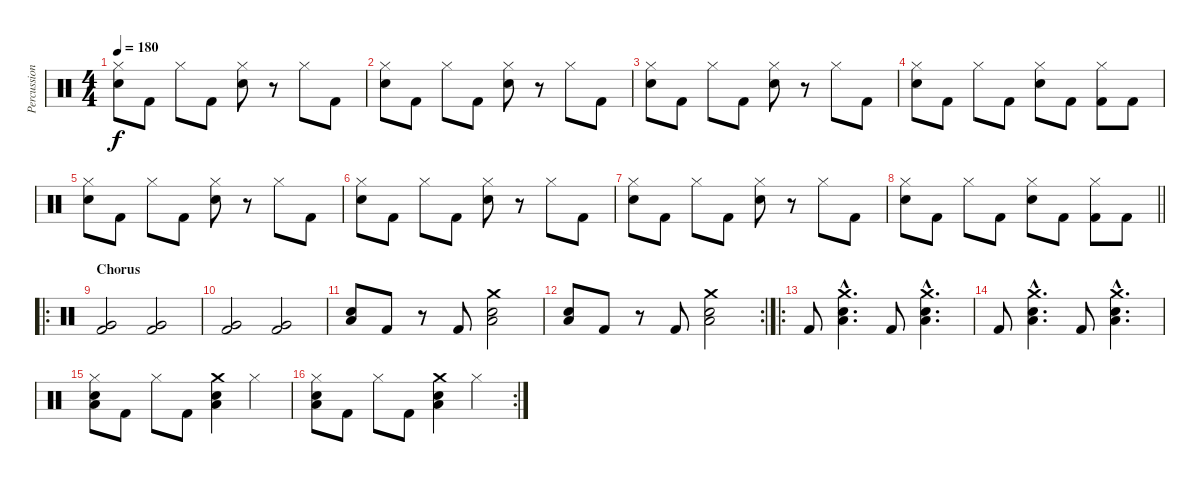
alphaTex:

\track ("Percussion" "Percussion") {instrument percussion}
\staff {score}
\articulation defaults
\ts (4 4)
\tempo 180
\clef neutral
\ks c
("Hi-Hat (closed)" "Electric Snare (hit)").8{dy f} "Kick (hit) 2".8 "Hi-Hat (closed)".8 "Kick (hit) 2".8 ("Hi-Hat (closed)" "Electric Snare (hit)").8 r.8 "Hi-Hat (closed)".8 "Kick (hit) 2".8 |
("Hi-Hat (closed)" "Electric Snare (hit)").8 "Kick (hit) 2".8 "Hi-Hat (closed)".8 "Kick (hit) 2".8 ("Hi-Hat (closed)" "Electric Snare (hit)").8 r.8 "Hi-Hat (closed)".8 "Kick (hit) 2".8 |
("Hi-Hat (closed)" "Electric Snare (hit)").8 "Kick (hit) 2".8 "Hi-Hat (closed)".8 "Kick (hit) 2".8 ("Hi-Hat (closed)" "Electric Snare (hit)").8 r.8 "Hi-Hat (closed)".8 "Kick (hit) 2".8 |
("Hi-Hat (closed)" "Electric Snare (hit)").8 "Kick (hit) 2".8 "Hi-Hat (closed)".8 "Kick (hit) 2".8 ("Hi-Hat (closed)" "Electric Snare (hit)").8 "Kick (hit) 2".8 ("Hi-Hat (closed)" "Kick (hit) 2").8 "Kick (hit) 2".8 |
("Hi-Hat (closed)" "Electric Snare (hit)").8 "Kick (hit) 2".8 "Hi-Hat (closed)".8 "Kick (hit) 2".8 ("Hi-Hat (closed)" "Electric Snare (hit)").8 r.8 "Hi-Hat (closed)".8 "Kick (hit) 2".8 |
("Hi-Hat (closed)" "Electric Snare (hit)").8 "Kick (hit) 2".8 "Hi-Hat (closed)".8 "Kick (hit) 2".8 ("Hi-Hat (closed)" "Electric Snare (hit)").8 r.8 "Hi-Hat (closed)".8 "Kick (hit) 2".8 |
("Hi-Hat (closed)" "Electric Snare (hit)").8 "Kick (hit) 2".8 "Hi-Hat (closed)".8 "Kick (hit) 2".8 ("Hi-Hat (closed)" "Electric Snare (hit)").8 r.8 "Hi-Hat (closed)".8 "Kick (hit) 2".8 |
\barLineRight lightlight
("Hi-Hat (closed)" "Electric Snare (hit)").8 "Kick (hit) 2".8 "Hi-Hat (closed)".8 "Kick (hit) 2".8 ("Hi-Hat (closed)" "Electric Snare (hit)").8 "Kick (hit) 2".8 ("Hi-Hat (closed)" "Kick (hit) 2").8 "Kick (hit) 2".8 |
\ro
\section ("" "Chorus")
("Very Low Tom (hit)" "Kick (hit) 2").2 ("Very Low Tom (hit)" "Kick (hit) 2").2 |
("Very Low Tom (hit)" "Kick (hit) 2").2 ("Very Low Tom (hit)" "Kick (hit) 2").2 |
("Low Floor Tom (hit)" "Electric Snare (hit)").8 "Kick (hit) 2".8 r.8 "Kick (hit) 2".8 ("Crash medium (hit)" "Low Floor Tom (hit)" "Electric Snare (hit)").2 |
\rc 2
("Low Floor Tom (hit)" "Electric Snare (hit)").8 "Kick (hit) 2".8 r.8 "Kick (hit) 2".8 ("Crash medium (hit)" "Low Floor Tom (hit)" "Electric Snare (hit)").2 |
\ro "Kick (hit) 2".8
("Crash medium (hit)"{hac} "Low Floor Tom (hit)"{hac} "Electric Snare (hit)"{hac}).4{d} "Kick (hit) 2".8 ("Crash medium (hit)"{hac} "Low Floor Tom (hit)"{hac} "Electric Snare (hit)"{hac}).4{d} |
"Kick (hit) 2".8 ("Crash medium (hit)"{hac} "Low Floor Tom (hit)"{hac} "Electric Snare (hit)"{hac}).4{d} "Kick (hit) 2".8 ("Crash medium (hit)"{hac} "Low Floor Tom (hit)"{hac} "Electric Snare (hit)"{hac}).4{d} |
("Hi-Hat (closed)" "Low Floor Tom (hit)" "Electric Snare (hit)").8 "Kick (hit) 2".8 "Hi-Hat (closed)".8 "Kick (hit) 2".8 ("Crash medium (hit)" "Low Floor Tom (hit)" "Electric Snare (hit)").4 "Hi-Hat (closed)".4 |
\rc 2
("Hi-Hat (closed)" "Low Floor Tom (hit)" "Electric Snare (hit)").8 "Kick (hit) 2".8 "Hi-Hat (closed)".8 "Kick (hit) 2".8 ("Crash medium (hit)" "Low Floor Tom (hit)" "Electric Snare (hit)").4 "Hi-Hat (closed)".4
